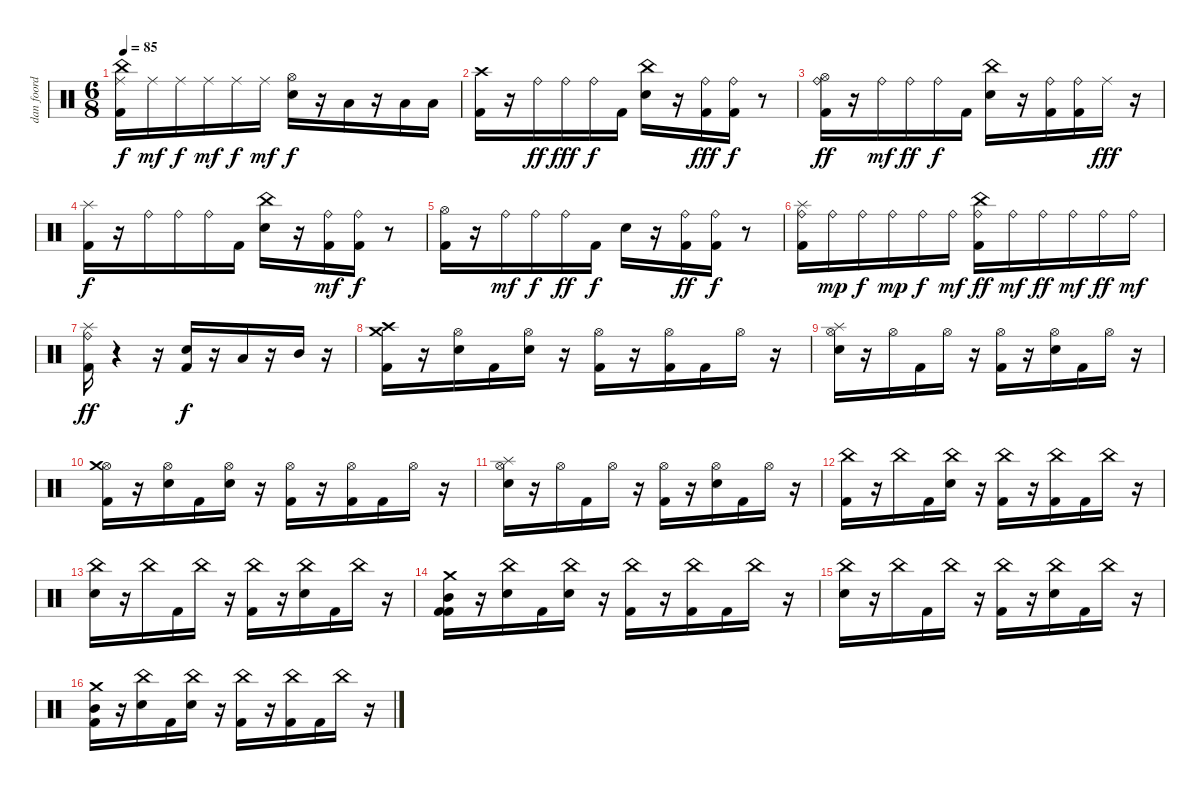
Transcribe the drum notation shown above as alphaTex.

\track ("dan foord" "dan foord") {instrument percussion}
\staff {score}
\articulation defaults
\ts (6 8)
\tempo 85
\clef neutral
\ks c
("Kick (hit) 2" "Ride (middle)" "China (hit)").16{dy f} "Ride (middle)".16{dy mf} "Ride (middle)".16{dy f} "Ride (middle)".16{dy mf} "Ride (middle)".16{dy f} "Ride (middle)".16{dy mf} ("Snare (hit) 2" "Hi-Hat (open)").16{dy f} r.16 "Low Floor Tom (hit)".16 r.16 "Low Floor Tom (hit)".16 "Low Floor Tom (hit)".16 |
("Kick (hit) 2" "Crash high (hit)").16 r.16 "Ride (bell)".16{dy ff} "Ride (bell)".16{dy fff} "Ride (bell)".16{dy f} "Kick (hit) 2".16 ("Snare (hit) 2" "China (hit)").16 r.16 ("Kick (hit) 2" "Ride (bell)").16{dy fff} ("Kick (hit) 2" "Ride (bell)").16{dy f} r.8 |
("Kick (hit) 2" "Hi-Hat (open)" "Ride (bell)").16{dy ff} r.16 "Ride (bell)".16{dy mf} "Ride (bell)".16{dy ff} "Ride (bell)".16{dy f} "Kick (hit) 2".16 ("Snare (hit) 2" "China (hit)").16 r.16 ("Kick (hit) 2" "Ride (bell)").16 ("Kick (hit) 2" "Ride (bell)").16 "Ride (middle)".16{dy fff} r.16 |
("Kick (hit) 2" "Splash (hit)").16{dy f} r.16 "Ride (bell)".16 "Ride (bell)".16 "Ride (bell)".16 "Kick (hit) 2".16 ("Snare (hit) 2" "China (hit)").16 r.16 ("Kick (hit) 2" "Ride (bell)").16{dy mf} ("Kick (hit) 2" "Ride (bell)").16{dy f} r.8 |
("Kick (hit) 2" "Hi-Hat (open)").16 r.16 "Ride (bell)".16{dy mf} "Ride (bell)".16{dy f} "Ride (bell)".16{dy ff} "Kick (hit) 2".16{dy f} "Snare (hit) 2".16 r.16 ("Kick (hit) 2" "Ride (bell)").16{dy ff} ("Kick (hit) 2" "Ride (bell)").16{dy f} r.8 |
("Kick (hit) 2" "Ride (bell)" "Splash (hit)").16 "Ride (bell)".16{dy mp} "Ride (bell)".16{dy f} "Ride (bell)".16{dy mp} "Ride (bell)".16{dy f} "Ride (bell)".16{dy mf} ("Kick (hit) 2" "China (hit)" "Ride (bell)").16{dy ff} "Ride (bell)".16{dy mf} "Ride (bell)".16{dy ff} "Ride (bell)".16{dy mf} "Ride (bell)".16{dy ff} "Ride (bell)".16{dy mf} |
("Kick (hit) 2" "Ride (bell)" "Splash (hit)").16{dy ff} r.4 r.16 ("Kick (hit) 2" "Snare (hit) 2").16{dy f} r.16 "Low Floor Tom (hit)".16 r.16 "Mid Tom (hit)".16 r.16 |
("Kick (hit) 2" "Crash high (hit)" "Crash medium (hit)").16 r.16 ("Snare (hit) 2" "Hi-Hat (open)").16 "Kick (hit) 2".16 ("Snare (hit) 2" "Hi-Hat (open)").16 r.16 ("Kick (hit) 2" "Hi-Hat (open)").16 r.16 ("Kick (hit) 2" "Hi-Hat (open)").16 "Kick (hit) 2".16 "Hi-Hat (open)".16 r.16 |
("Snare (hit) 2" "Hi-Hat (open)" "Splash (hit)").16 r.16 "Hi-Hat (open)".16 "Kick (hit) 2".16 "Hi-Hat (open)".16 r.16 ("Kick (hit) 2" "Hi-Hat (open)").16 r.16 ("Snare (hit) 2" "Hi-Hat (open)").16 "Kick (hit) 2".16 "Hi-Hat (open)".16 r.16 |
("Kick (hit) 2" "Hi-Hat (open)" "Crash medium (hit)").16 r.16 ("Snare (hit) 2" "Hi-Hat (open)").16 "Kick (hit) 2".16 ("Snare (hit) 2" "Hi-Hat (open)").16 r.16 ("Kick (hit) 2" "Hi-Hat (open)").16 r.16 ("Kick (hit) 2" "Hi-Hat (open)").16 "Kick (hit) 2".16 "Hi-Hat (open)".16 r.16 |
("Snare (hit) 2" "Hi-Hat (open)" "Splash (hit)").16 r.16 "Hi-Hat (open)".16 "Kick (hit) 2".16 "Hi-Hat (open)".16 r.16 ("Kick (hit) 2" "Hi-Hat (open)").16 r.16 ("Snare (hit) 2" "Hi-Hat (open)").16 "Kick (hit) 2".16 "Hi-Hat (open)".16 r.16 |
("Kick (hit) 2" "China (hit)").16 r.16 "China (hit)".16 "Kick (hit) 2".16 ("Snare (hit) 2" "China (hit)").16 r.16 ("Kick (hit) 2" "China (hit)").16 r.16 ("Kick (hit) 2" "China (hit)").16 "Kick (hit) 2".16 "China (hit)".16 r.16 |
("Snare (hit) 2" "China (hit)").16 r.16 "China (hit)".16 "Kick (hit) 2".16 "China (hit)".16 r.16 ("Kick (hit) 2" "China (hit)").16 r.16 ("Snare (hit) 2" "China (hit)").16 "Kick (hit) 2".16 "China (hit)".16 r.16 |
("Kick (hit) 2" "Kick (hit) 2" "Mid Tom (hit)" "Crash medium (hit)").16 r.16 ("Snare (hit) 2" "China (hit)").16 "Kick (hit) 2".16 ("Snare (hit) 2" "China (hit)").16 r.16 ("Kick (hit) 2" "China (hit)").16 r.16 ("Kick (hit) 2" "China (hit)").16 "Kick (hit) 2".16 "China (hit)".16 r.16 |
("Snare (hit) 2" "China (hit)").16 r.16 "China (hit)".16 "Kick (hit) 2".16 "China (hit)".16 r.16 ("Kick (hit) 2" "China (hit)").16 r.16 ("Snare (hit) 2" "China (hit)").16 "Kick (hit) 2".16 "China (hit)".16 r.16 |
("Kick (hit) 2" "Mid Tom (hit)" "Crash medium (hit)").16 r.16 ("Snare (hit) 2" "China (hit)").16 "Kick (hit) 2".16 ("Snare (hit) 2" "China (hit)").16 r.16 ("Kick (hit) 2" "China (hit)").16 r.16 ("Kick (hit) 2" "China (hit)").16 "Kick (hit) 2".16 "China (hit)".16 r.16
